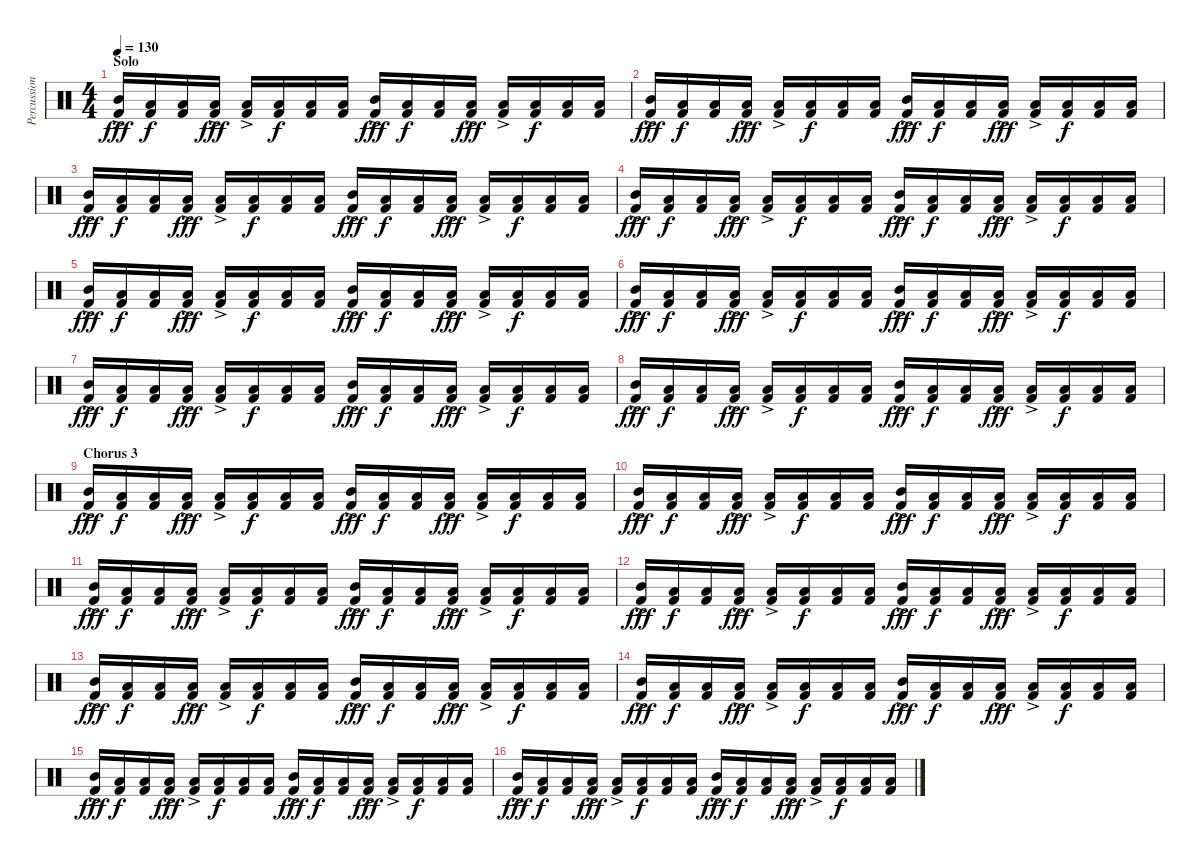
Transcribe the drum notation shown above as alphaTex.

\track ("Percussion" "Percussion") {instrument percussion}
\staff {score}
\articulation defaults
\ts (4 4)
\section ("" "Solo")
\tempo 130
\clef neutral
\ks c
("Mid Tom (hit)"{ac} "Kick (hit) 2").16{dy fff} ("Low Floor Tom (hit)" "Kick (hit) 2").16{dy f} ("Low Floor Tom (hit)" "Kick (hit) 2").16 ("Low Tom (hit)"{ac} "Kick (hit) 2").16{dy fff} ("Low Tom (hit)"{ac} "Kick (hit) 2").16 ("Low Floor Tom (hit)" "Kick (hit) 2").16{dy f} ("Low Floor Tom (hit)" "Kick (hit) 2").16 ("Low Floor Tom (hit)" "Kick (hit) 2").16 ("Mid Tom (hit)"{ac} "Kick (hit) 2").16{dy fff} ("Low Floor Tom (hit)" "Kick (hit) 2").16{dy f} ("Low Floor Tom (hit)" "Kick (hit) 2").16 ("Low Tom (hit)"{ac} "Kick (hit) 2").16{dy fff} ("Low Tom (hit)"{ac} "Kick (hit) 2").16 ("Low Floor Tom (hit)" "Kick (hit) 2").16{dy f} ("Low Floor Tom (hit)" "Kick (hit) 2").16 ("Low Floor Tom (hit)" "Kick (hit) 2").16 |
("Mid Tom (hit)"{ac} "Kick (hit) 2").16{dy fff} ("Low Floor Tom (hit)" "Kick (hit) 2").16{dy f} ("Low Floor Tom (hit)" "Kick (hit) 2").16 ("Low Tom (hit)"{ac} "Kick (hit) 2").16{dy fff} ("Low Tom (hit)"{ac} "Kick (hit) 2").16 ("Low Floor Tom (hit)" "Kick (hit) 2").16{dy f} ("Low Floor Tom (hit)" "Kick (hit) 2").16 ("Low Floor Tom (hit)" "Kick (hit) 2").16 ("Mid Tom (hit)"{ac} "Kick (hit) 2").16{dy fff} ("Low Floor Tom (hit)" "Kick (hit) 2").16{dy f} ("Low Floor Tom (hit)" "Kick (hit) 2").16 ("Low Tom (hit)"{ac} "Kick (hit) 2").16{dy fff} ("Low Tom (hit)"{ac} "Kick (hit) 2").16 ("Low Floor Tom (hit)" "Kick (hit) 2").16{dy f} ("Low Floor Tom (hit)" "Kick (hit) 2").16 ("Low Floor Tom (hit)" "Kick (hit) 2").16 |
("Mid Tom (hit)"{ac} "Kick (hit) 2").16{dy fff} ("Low Floor Tom (hit)" "Kick (hit) 2").16{dy f} ("Low Floor Tom (hit)" "Kick (hit) 2").16 ("Low Tom (hit)"{ac} "Kick (hit) 2").16{dy fff} ("Low Tom (hit)"{ac} "Kick (hit) 2").16 ("Low Floor Tom (hit)" "Kick (hit) 2").16{dy f} ("Low Floor Tom (hit)" "Kick (hit) 2").16 ("Low Floor Tom (hit)" "Kick (hit) 2").16 ("Mid Tom (hit)"{ac} "Kick (hit) 2").16{dy fff} ("Low Floor Tom (hit)" "Kick (hit) 2").16{dy f} ("Low Floor Tom (hit)" "Kick (hit) 2").16 ("Low Tom (hit)"{ac} "Kick (hit) 2").16{dy fff} ("Low Tom (hit)"{ac} "Kick (hit) 2").16 ("Low Floor Tom (hit)" "Kick (hit) 2").16{dy f} ("Low Floor Tom (hit)" "Kick (hit) 2").16 ("Low Floor Tom (hit)" "Kick (hit) 2").16 |
("Mid Tom (hit)"{ac} "Kick (hit) 2").16{dy fff} ("Low Floor Tom (hit)" "Kick (hit) 2").16{dy f} ("Low Floor Tom (hit)" "Kick (hit) 2").16 ("Low Tom (hit)"{ac} "Kick (hit) 2").16{dy fff} ("Low Tom (hit)"{ac} "Kick (hit) 2").16 ("Low Floor Tom (hit)" "Kick (hit) 2").16{dy f} ("Low Floor Tom (hit)" "Kick (hit) 2").16 ("Low Floor Tom (hit)" "Kick (hit) 2").16 ("Mid Tom (hit)"{ac} "Kick (hit) 2").16{dy fff} ("Low Floor Tom (hit)" "Kick (hit) 2").16{dy f} ("Low Floor Tom (hit)" "Kick (hit) 2").16 ("Low Tom (hit)"{ac} "Kick (hit) 2").16{dy fff} ("Low Tom (hit)"{ac} "Kick (hit) 2").16 ("Low Floor Tom (hit)" "Kick (hit) 2").16{dy f} ("Low Floor Tom (hit)" "Kick (hit) 2").16 ("Low Floor Tom (hit)" "Kick (hit) 2").16 |
("Mid Tom (hit)"{ac} "Kick (hit) 2").16{dy fff} ("Low Floor Tom (hit)" "Kick (hit) 2").16{dy f} ("Low Floor Tom (hit)" "Kick (hit) 2").16 ("Low Tom (hit)"{ac} "Kick (hit) 2").16{dy fff} ("Low Tom (hit)"{ac} "Kick (hit) 2").16 ("Low Floor Tom (hit)" "Kick (hit) 2").16{dy f} ("Low Floor Tom (hit)" "Kick (hit) 2").16 ("Low Floor Tom (hit)" "Kick (hit) 2").16 ("Mid Tom (hit)"{ac} "Kick (hit) 2").16{dy fff} ("Low Floor Tom (hit)" "Kick (hit) 2").16{dy f} ("Low Floor Tom (hit)" "Kick (hit) 2").16 ("Low Tom (hit)"{ac} "Kick (hit) 2").16{dy fff} ("Low Tom (hit)"{ac} "Kick (hit) 2").16 ("Low Floor Tom (hit)" "Kick (hit) 2").16{dy f} ("Low Floor Tom (hit)" "Kick (hit) 2").16 ("Low Floor Tom (hit)" "Kick (hit) 2").16 |
("Mid Tom (hit)"{ac} "Kick (hit) 2").16{dy fff} ("Low Floor Tom (hit)" "Kick (hit) 2").16{dy f} ("Low Floor Tom (hit)" "Kick (hit) 2").16 ("Low Tom (hit)"{ac} "Kick (hit) 2").16{dy fff} ("Low Tom (hit)"{ac} "Kick (hit) 2").16 ("Low Floor Tom (hit)" "Kick (hit) 2").16{dy f} ("Low Floor Tom (hit)" "Kick (hit) 2").16 ("Low Floor Tom (hit)" "Kick (hit) 2").16 ("Mid Tom (hit)"{ac} "Kick (hit) 2").16{dy fff} ("Low Floor Tom (hit)" "Kick (hit) 2").16{dy f} ("Low Floor Tom (hit)" "Kick (hit) 2").16 ("Low Tom (hit)"{ac} "Kick (hit) 2").16{dy fff} ("Low Tom (hit)"{ac} "Kick (hit) 2").16 ("Low Floor Tom (hit)" "Kick (hit) 2").16{dy f} ("Low Floor Tom (hit)" "Kick (hit) 2").16 ("Low Floor Tom (hit)" "Kick (hit) 2").16 |
("Mid Tom (hit)"{ac} "Kick (hit) 2").16{dy fff} ("Low Floor Tom (hit)" "Kick (hit) 2").16{dy f} ("Low Floor Tom (hit)" "Kick (hit) 2").16 ("Low Tom (hit)"{ac} "Kick (hit) 2").16{dy fff} ("Low Tom (hit)"{ac} "Kick (hit) 2").16 ("Low Floor Tom (hit)" "Kick (hit) 2").16{dy f} ("Low Floor Tom (hit)" "Kick (hit) 2").16 ("Low Floor Tom (hit)" "Kick (hit) 2").16 ("Mid Tom (hit)"{ac} "Kick (hit) 2").16{dy fff} ("Low Floor Tom (hit)" "Kick (hit) 2").16{dy f} ("Low Floor Tom (hit)" "Kick (hit) 2").16 ("Low Tom (hit)"{ac} "Kick (hit) 2").16{dy fff} ("Low Tom (hit)"{ac} "Kick (hit) 2").16 ("Low Floor Tom (hit)" "Kick (hit) 2").16{dy f} ("Low Floor Tom (hit)" "Kick (hit) 2").16 ("Low Floor Tom (hit)" "Kick (hit) 2").16 |
("Mid Tom (hit)"{ac} "Kick (hit) 2").16{dy fff} ("Low Floor Tom (hit)" "Kick (hit) 2").16{dy f} ("Low Floor Tom (hit)" "Kick (hit) 2").16 ("Low Tom (hit)"{ac} "Kick (hit) 2").16{dy fff} ("Low Tom (hit)"{ac} "Kick (hit) 2").16 ("Low Floor Tom (hit)" "Kick (hit) 2").16{dy f} ("Low Floor Tom (hit)" "Kick (hit) 2").16 ("Low Floor Tom (hit)" "Kick (hit) 2").16 ("Mid Tom (hit)"{ac} "Kick (hit) 2").16{dy fff} ("Low Floor Tom (hit)" "Kick (hit) 2").16{dy f} ("Low Floor Tom (hit)" "Kick (hit) 2").16 ("Low Tom (hit)"{ac} "Kick (hit) 2").16{dy fff} ("Low Tom (hit)"{ac} "Kick (hit) 2").16 ("Low Floor Tom (hit)" "Kick (hit) 2").16{dy f} ("Low Floor Tom (hit)" "Kick (hit) 2").16 ("Low Floor Tom (hit)" "Kick (hit) 2").16 |
\section ("" "Chorus 3")
("Mid Tom (hit)"{ac} "Kick (hit) 2").16{dy fff} ("Low Floor Tom (hit)" "Kick (hit) 2").16{dy f} ("Low Floor Tom (hit)" "Kick (hit) 2").16 ("Low Tom (hit)"{ac} "Kick (hit) 2").16{dy fff} ("Low Tom (hit)"{ac} "Kick (hit) 2").16 ("Low Floor Tom (hit)" "Kick (hit) 2").16{dy f} ("Low Floor Tom (hit)" "Kick (hit) 2").16 ("Low Floor Tom (hit)" "Kick (hit) 2").16 ("Mid Tom (hit)"{ac} "Kick (hit) 2").16{dy fff} ("Low Floor Tom (hit)" "Kick (hit) 2").16{dy f} ("Low Floor Tom (hit)" "Kick (hit) 2").16 ("Low Tom (hit)"{ac} "Kick (hit) 2").16{dy fff} ("Low Tom (hit)"{ac} "Kick (hit) 2").16 ("Low Floor Tom (hit)" "Kick (hit) 2").16{dy f} ("Low Floor Tom (hit)" "Kick (hit) 2").16 ("Low Floor Tom (hit)" "Kick (hit) 2").16 |
("Mid Tom (hit)"{ac} "Kick (hit) 2").16{dy fff} ("Low Floor Tom (hit)" "Kick (hit) 2").16{dy f} ("Low Floor Tom (hit)" "Kick (hit) 2").16 ("Low Tom (hit)"{ac} "Kick (hit) 2").16{dy fff} ("Low Tom (hit)"{ac} "Kick (hit) 2").16 ("Low Floor Tom (hit)" "Kick (hit) 2").16{dy f} ("Low Floor Tom (hit)" "Kick (hit) 2").16 ("Low Floor Tom (hit)" "Kick (hit) 2").16 ("Mid Tom (hit)"{ac} "Kick (hit) 2").16{dy fff} ("Low Floor Tom (hit)" "Kick (hit) 2").16{dy f} ("Low Floor Tom (hit)" "Kick (hit) 2").16 ("Low Tom (hit)"{ac} "Kick (hit) 2").16{dy fff} ("Low Tom (hit)"{ac} "Kick (hit) 2").16 ("Low Floor Tom (hit)" "Kick (hit) 2").16{dy f} ("Low Floor Tom (hit)" "Kick (hit) 2").16 ("Low Floor Tom (hit)" "Kick (hit) 2").16 |
("Mid Tom (hit)"{ac} "Kick (hit) 2").16{dy fff} ("Low Floor Tom (hit)" "Kick (hit) 2").16{dy f} ("Low Floor Tom (hit)" "Kick (hit) 2").16 ("Low Tom (hit)"{ac} "Kick (hit) 2").16{dy fff} ("Low Tom (hit)"{ac} "Kick (hit) 2").16 ("Low Floor Tom (hit)" "Kick (hit) 2").16{dy f} ("Low Floor Tom (hit)" "Kick (hit) 2").16 ("Low Floor Tom (hit)" "Kick (hit) 2").16 ("Mid Tom (hit)"{ac} "Kick (hit) 2").16{dy fff} ("Low Floor Tom (hit)" "Kick (hit) 2").16{dy f} ("Low Floor Tom (hit)" "Kick (hit) 2").16 ("Low Tom (hit)"{ac} "Kick (hit) 2").16{dy fff} ("Low Tom (hit)"{ac} "Kick (hit) 2").16 ("Low Floor Tom (hit)" "Kick (hit) 2").16{dy f} ("Low Floor Tom (hit)" "Kick (hit) 2").16 ("Low Floor Tom (hit)" "Kick (hit) 2").16 |
("Mid Tom (hit)"{ac} "Kick (hit) 2").16{dy fff} ("Low Floor Tom (hit)" "Kick (hit) 2").16{dy f} ("Low Floor Tom (hit)" "Kick (hit) 2").16 ("Low Tom (hit)"{ac} "Kick (hit) 2").16{dy fff} ("Low Tom (hit)"{ac} "Kick (hit) 2").16 ("Low Floor Tom (hit)" "Kick (hit) 2").16{dy f} ("Low Floor Tom (hit)" "Kick (hit) 2").16 ("Low Floor Tom (hit)" "Kick (hit) 2").16 ("Mid Tom (hit)"{ac} "Kick (hit) 2").16{dy fff} ("Low Floor Tom (hit)" "Kick (hit) 2").16{dy f} ("Low Floor Tom (hit)" "Kick (hit) 2").16 ("Low Tom (hit)"{ac} "Kick (hit) 2").16{dy fff} ("Low Tom (hit)"{ac} "Kick (hit) 2").16 ("Low Floor Tom (hit)" "Kick (hit) 2").16{dy f} ("Low Floor Tom (hit)" "Kick (hit) 2").16 ("Low Floor Tom (hit)" "Kick (hit) 2").16 |
("Mid Tom (hit)"{ac} "Kick (hit) 2").16{dy fff} ("Low Floor Tom (hit)" "Kick (hit) 2").16{dy f} ("Low Floor Tom (hit)" "Kick (hit) 2").16 ("Low Tom (hit)"{ac} "Kick (hit) 2").16{dy fff} ("Low Tom (hit)"{ac} "Kick (hit) 2").16 ("Low Floor Tom (hit)" "Kick (hit) 2").16{dy f} ("Low Floor Tom (hit)" "Kick (hit) 2").16 ("Low Floor Tom (hit)" "Kick (hit) 2").16 ("Mid Tom (hit)"{ac} "Kick (hit) 2").16{dy fff} ("Low Floor Tom (hit)" "Kick (hit) 2").16{dy f} ("Low Floor Tom (hit)" "Kick (hit) 2").16 ("Low Tom (hit)"{ac} "Kick (hit) 2").16{dy fff} ("Low Tom (hit)"{ac} "Kick (hit) 2").16 ("Low Floor Tom (hit)" "Kick (hit) 2").16{dy f} ("Low Floor Tom (hit)" "Kick (hit) 2").16 ("Low Floor Tom (hit)" "Kick (hit) 2").16 |
("Mid Tom (hit)"{ac} "Kick (hit) 2").16{dy fff} ("Low Floor Tom (hit)" "Kick (hit) 2").16{dy f} ("Low Floor Tom (hit)" "Kick (hit) 2").16 ("Low Tom (hit)"{ac} "Kick (hit) 2").16{dy fff} ("Low Tom (hit)"{ac} "Kick (hit) 2").16 ("Low Floor Tom (hit)" "Kick (hit) 2").16{dy f} ("Low Floor Tom (hit)" "Kick (hit) 2").16 ("Low Floor Tom (hit)" "Kick (hit) 2").16 ("Mid Tom (hit)"{ac} "Kick (hit) 2").16{dy fff} ("Low Floor Tom (hit)" "Kick (hit) 2").16{dy f} ("Low Floor Tom (hit)" "Kick (hit) 2").16 ("Low Tom (hit)"{ac} "Kick (hit) 2").16{dy fff} ("Low Tom (hit)"{ac} "Kick (hit) 2").16 ("Low Floor Tom (hit)" "Kick (hit) 2").16{dy f} ("Low Floor Tom (hit)" "Kick (hit) 2").16 ("Low Floor Tom (hit)" "Kick (hit) 2").16 |
("Mid Tom (hit)"{ac} "Kick (hit) 2").16{dy fff} ("Low Floor Tom (hit)" "Kick (hit) 2").16{dy f} ("Low Floor Tom (hit)" "Kick (hit) 2").16 ("Low Tom (hit)"{ac} "Kick (hit) 2").16{dy fff} ("Low Tom (hit)"{ac} "Kick (hit) 2").16 ("Low Floor Tom (hit)" "Kick (hit) 2").16{dy f} ("Low Floor Tom (hit)" "Kick (hit) 2").16 ("Low Floor Tom (hit)" "Kick (hit) 2").16 ("Mid Tom (hit)"{ac} "Kick (hit) 2").16{dy fff} ("Low Floor Tom (hit)" "Kick (hit) 2").16{dy f} ("Low Floor Tom (hit)" "Kick (hit) 2").16 ("Low Tom (hit)"{ac} "Kick (hit) 2").16{dy fff} ("Low Tom (hit)"{ac} "Kick (hit) 2").16 ("Low Floor Tom (hit)" "Kick (hit) 2").16{dy f} ("Low Floor Tom (hit)" "Kick (hit) 2").16 ("Low Floor Tom (hit)" "Kick (hit) 2").16 |
("Mid Tom (hit)"{ac} "Kick (hit) 2").16{dy fff} ("Low Floor Tom (hit)" "Kick (hit) 2").16{dy f} ("Low Floor Tom (hit)" "Kick (hit) 2").16 ("Low Tom (hit)"{ac} "Kick (hit) 2").16{dy fff} ("Low Tom (hit)"{ac} "Kick (hit) 2").16 ("Low Floor Tom (hit)" "Kick (hit) 2").16{dy f} ("Low Floor Tom (hit)" "Kick (hit) 2").16 ("Low Floor Tom (hit)" "Kick (hit) 2").16 ("Mid Tom (hit)"{ac} "Kick (hit) 2").16{dy fff} ("Low Floor Tom (hit)" "Kick (hit) 2").16{dy f} ("Low Floor Tom (hit)" "Kick (hit) 2").16 ("Low Tom (hit)"{ac} "Kick (hit) 2").16{dy fff} ("Low Tom (hit)"{ac} "Kick (hit) 2").16 ("Low Floor Tom (hit)" "Kick (hit) 2").16{dy f} ("Low Floor Tom (hit)" "Kick (hit) 2").16 ("Low Floor Tom (hit)" "Kick (hit) 2").16
